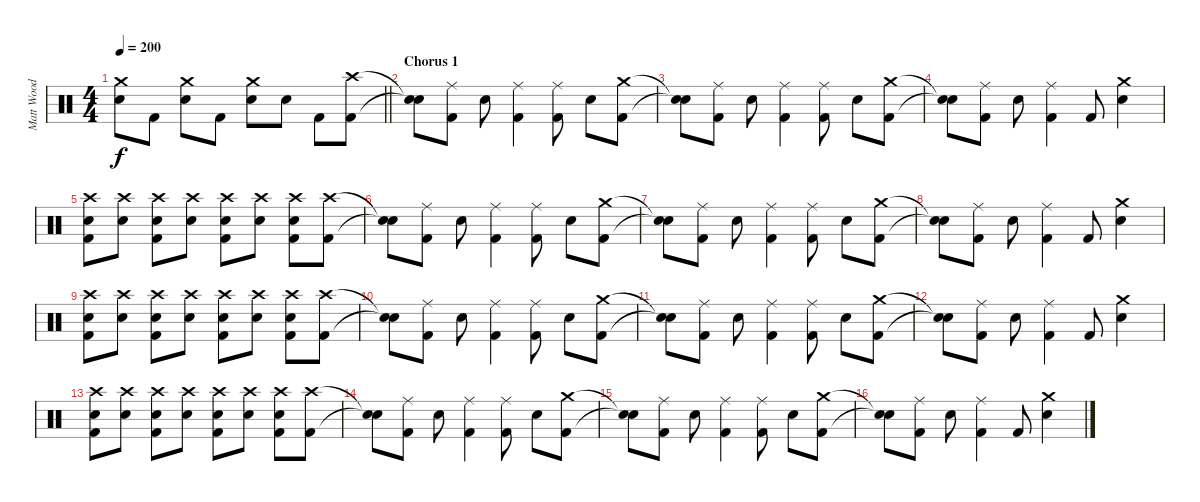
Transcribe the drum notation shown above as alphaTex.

\track ("Matt Wood" "Matt Wood") {instrument percussion}
\staff {score}
\articulation defaults
\ts (4 4)
\tempo 200
\clef neutral
\barLineRight lightlight
\ks c
("Crash medium (hit)" "Snare (hit) 2").8{dy f} "Kick (hit) 2".8 ("Crash medium (hit)" "Snare (hit) 2").8 "Kick (hit) 2".8 ("Crash medium (hit)" "Snare (hit) 2").8 "Snare (hit) 2".8 "Kick (hit) 2".8 ("Crash high (hit)" "Kick (hit) 2").8 |
\section ("" "Chorus 1")
("Snare (hit)"{t} "Snare (hit)"{t}).8 ("Ride (middle)" "Kick (hit) 2").8 "Snare (hit) 2".8 ("Ride (middle)" "Kick (hit) 2").4 ("Ride (middle)" "Kick (hit) 2").8 "Snare (hit) 2".8 ("Crash medium (hit)" "Kick (hit) 2").8 |
("Snare (hit)"{t} "Snare (hit)"{t}).8 ("Ride (middle)" "Kick (hit) 2").8 "Snare (hit) 2".8 ("Ride (middle)" "Kick (hit) 2").4 ("Ride (middle)" "Kick (hit) 2").8 "Snare (hit) 2".8 ("Crash medium (hit)" "Kick (hit) 2").8 |
("Snare (hit)"{t} "Snare (hit)"{t}).8 ("Ride (middle)" "Kick (hit) 2").8 "Snare (hit) 2".8 ("Ride (middle)" "Kick (hit) 2").4 "Kick (hit) 2".8 ("Crash medium (hit)" "Snare (hit) 2").4 |
("Crash high (hit)" "Snare (hit) 2" "Kick (hit) 2").8 ("Crash high (hit)" "Snare (hit) 2").8 ("Crash high (hit)" "Snare (hit) 2" "Kick (hit) 2").8 ("Crash high (hit)" "Snare (hit) 2").8 ("Crash high (hit)" "Snare (hit) 2" "Kick (hit) 2").8 ("Crash high (hit)" "Snare (hit) 2").8 ("Crash high (hit)" "Snare (hit) 2" "Kick (hit) 2").8 ("Crash high (hit)" "Kick (hit) 2").8 |
("Snare (hit)"{t} "Snare (hit)"{t}).8 ("Ride (middle)" "Kick (hit) 2").8 "Snare (hit) 2".8 ("Ride (middle)" "Kick (hit) 2").4 ("Ride (middle)" "Kick (hit) 2").8 "Snare (hit) 2".8 ("Crash medium (hit)" "Kick (hit) 2").8 |
("Snare (hit)"{t} "Snare (hit)"{t}).8 ("Ride (middle)" "Kick (hit) 2").8 "Snare (hit) 2".8 ("Ride (middle)" "Kick (hit) 2").4 ("Ride (middle)" "Kick (hit) 2").8 "Snare (hit) 2".8 ("Crash medium (hit)" "Kick (hit) 2").8 |
("Snare (hit)"{t} "Snare (hit)"{t}).8 ("Ride (middle)" "Kick (hit) 2").8 "Snare (hit) 2".8 ("Ride (middle)" "Kick (hit) 2").4 "Kick (hit) 2".8 ("Crash medium (hit)" "Snare (hit) 2").4 |
("Crash high (hit)" "Snare (hit) 2" "Kick (hit) 2").8 ("Crash high (hit)" "Snare (hit) 2").8 ("Crash high (hit)" "Snare (hit) 2" "Kick (hit) 2").8 ("Crash high (hit)" "Snare (hit) 2").8 ("Crash high (hit)" "Snare (hit) 2" "Kick (hit) 2").8 ("Crash high (hit)" "Snare (hit) 2").8 ("Crash high (hit)" "Snare (hit) 2" "Kick (hit) 2").8 ("Crash high (hit)" "Kick (hit) 2").8 |
("Snare (hit)"{t} "Snare (hit)"{t}).8 ("Ride (middle)" "Kick (hit) 2").8 "Snare (hit) 2".8 ("Ride (middle)" "Kick (hit) 2").4 ("Ride (middle)" "Kick (hit) 2").8 "Snare (hit) 2".8 ("Crash medium (hit)" "Kick (hit) 2").8 |
("Snare (hit)"{t} "Snare (hit)"{t}).8 ("Ride (middle)" "Kick (hit) 2").8 "Snare (hit) 2".8 ("Ride (middle)" "Kick (hit) 2").4 ("Ride (middle)" "Kick (hit) 2").8 "Snare (hit) 2".8 ("Crash medium (hit)" "Kick (hit) 2").8 |
("Snare (hit)"{t} "Snare (hit)"{t}).8 ("Ride (middle)" "Kick (hit) 2").8 "Snare (hit) 2".8 ("Ride (middle)" "Kick (hit) 2").4 "Kick (hit) 2".8 ("Crash medium (hit)" "Snare (hit) 2").4 |
("Crash high (hit)" "Snare (hit) 2" "Kick (hit) 2").8 ("Crash high (hit)" "Snare (hit) 2").8 ("Crash high (hit)" "Snare (hit) 2" "Kick (hit) 2").8 ("Crash high (hit)" "Snare (hit) 2").8 ("Crash high (hit)" "Snare (hit) 2" "Kick (hit) 2").8 ("Crash high (hit)" "Snare (hit) 2").8 ("Crash high (hit)" "Snare (hit) 2" "Kick (hit) 2").8 ("Crash high (hit)" "Kick (hit) 2").8 |
("Snare (hit)"{t} "Snare (hit)"{t}).8 ("Ride (middle)" "Kick (hit) 2").8 "Snare (hit) 2".8 ("Ride (middle)" "Kick (hit) 2").4 ("Ride (middle)" "Kick (hit) 2").8 "Snare (hit) 2".8 ("Crash medium (hit)" "Kick (hit) 2").8 |
("Snare (hit)"{t} "Snare (hit)"{t}).8 ("Ride (middle)" "Kick (hit) 2").8 "Snare (hit) 2".8 ("Ride (middle)" "Kick (hit) 2").4 ("Ride (middle)" "Kick (hit) 2").8 "Snare (hit) 2".8 ("Crash medium (hit)" "Kick (hit) 2").8 |
("Snare (hit)"{t} "Snare (hit)"{t}).8 ("Ride (middle)" "Kick (hit) 2").8 "Snare (hit) 2".8 ("Ride (middle)" "Kick (hit) 2").4 "Kick (hit) 2".8 ("Crash medium (hit)" "Snare (hit) 2").4
